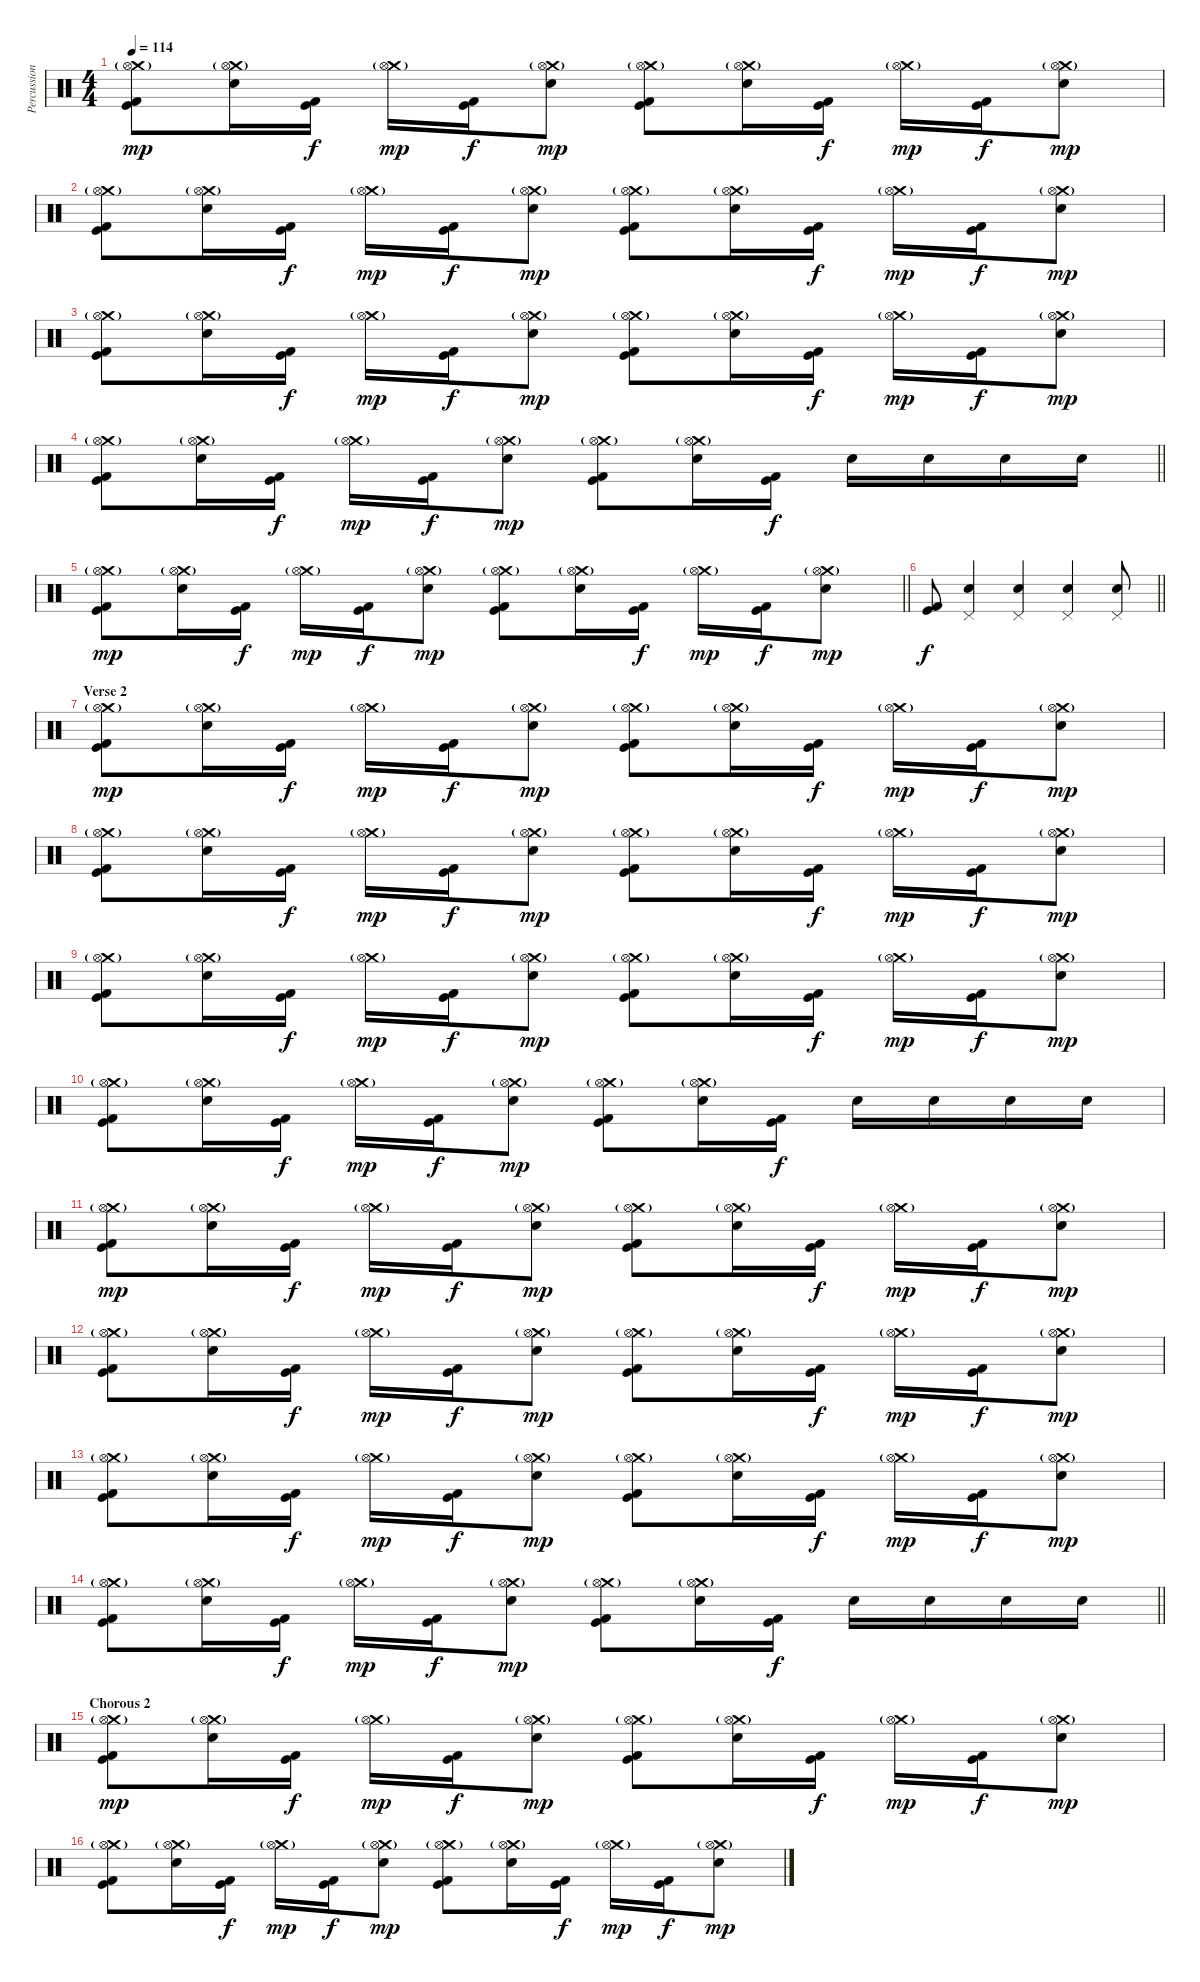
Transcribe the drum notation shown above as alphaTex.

\track ("Percussion" "Percussion") {instrument percussion}
\staff {score}
\articulation defaults
\ts (4 4)
\tempo 114
\clef neutral
\ks c
("Crash medium (hit)"{g} "Hi-Hat (open)" "Kick (hit)" "Kick (hit) 2").8{dy mp} ("Crash medium (hit)"{g} "Hi-Hat (open)" "Electric Snare (hit)").16 ("Kick (hit)" "Kick (hit) 2").16{dy f} ("Crash medium (hit)"{g} "Hi-Hat (open)").16{dy mp} ("Kick (hit)" "Kick (hit) 2").16{dy f} ("Crash medium (hit)"{g} "Hi-Hat (open)" "Electric Snare (hit)").8{dy mp} ("Crash medium (hit)"{g} "Hi-Hat (open)" "Kick (hit)" "Kick (hit) 2").8 ("Crash medium (hit)"{g} "Hi-Hat (open)" "Electric Snare (hit)").16 ("Kick (hit)" "Kick (hit) 2").16{dy f} ("Crash medium (hit)"{g} "Hi-Hat (open)").16{dy mp} ("Kick (hit)" "Kick (hit) 2").16{dy f} ("Crash medium (hit)"{g} "Hi-Hat (open)" "Electric Snare (hit)").8{dy mp} |
("Crash medium (hit)"{g} "Hi-Hat (open)" "Kick (hit)" "Kick (hit) 2").8 ("Crash medium (hit)"{g} "Hi-Hat (open)" "Electric Snare (hit)").16 ("Kick (hit)" "Kick (hit) 2").16{dy f} ("Crash medium (hit)"{g} "Hi-Hat (open)").16{dy mp} ("Kick (hit)" "Kick (hit) 2").16{dy f} ("Crash medium (hit)"{g} "Hi-Hat (open)" "Electric Snare (hit)").8{dy mp} ("Crash medium (hit)"{g} "Hi-Hat (open)" "Kick (hit)" "Kick (hit) 2").8 ("Crash medium (hit)"{g} "Hi-Hat (open)" "Electric Snare (hit)").16 ("Kick (hit)" "Kick (hit) 2").16{dy f} ("Crash medium (hit)"{g} "Hi-Hat (open)").16{dy mp} ("Kick (hit)" "Kick (hit) 2").16{dy f} ("Crash medium (hit)"{g} "Hi-Hat (open)" "Electric Snare (hit)").8{dy mp} |
("Crash medium (hit)"{g} "Hi-Hat (open)" "Kick (hit)" "Kick (hit) 2").8 ("Crash medium (hit)"{g} "Hi-Hat (open)" "Electric Snare (hit)").16 ("Kick (hit)" "Kick (hit) 2").16{dy f} ("Crash medium (hit)"{g} "Hi-Hat (open)").16{dy mp} ("Kick (hit)" "Kick (hit) 2").16{dy f} ("Crash medium (hit)"{g} "Hi-Hat (open)" "Electric Snare (hit)").8{dy mp} ("Crash medium (hit)"{g} "Hi-Hat (open)" "Kick (hit)" "Kick (hit) 2").8 ("Crash medium (hit)"{g} "Hi-Hat (open)" "Electric Snare (hit)").16 ("Kick (hit)" "Kick (hit) 2").16{dy f} ("Crash medium (hit)"{g} "Hi-Hat (open)").16{dy mp} ("Kick (hit)" "Kick (hit) 2").16{dy f} ("Crash medium (hit)"{g} "Hi-Hat (open)" "Electric Snare (hit)").8{dy mp} |
\barLineRight lightlight
("Crash medium (hit)"{g} "Hi-Hat (open)" "Kick (hit)" "Kick (hit) 2").8 ("Crash medium (hit)"{g} "Hi-Hat (open)" "Electric Snare (hit)").16 ("Kick (hit)" "Kick (hit) 2").16{dy f} ("Crash medium (hit)"{g} "Hi-Hat (open)").16{dy mp} ("Kick (hit)" "Kick (hit) 2").16{dy f} ("Crash medium (hit)"{g} "Hi-Hat (open)" "Electric Snare (hit)").8{dy mp} ("Crash medium (hit)"{g} "Hi-Hat (open)" "Kick (hit)" "Kick (hit) 2").8 ("Crash medium (hit)"{g} "Hi-Hat (open)" "Electric Snare (hit)").16 ("Kick (hit)" "Kick (hit) 2").16{dy f} "Electric Snare (hit)".16 "Electric Snare (hit)".16 "Electric Snare (hit)".16 "Electric Snare (hit)".16 |
\section ("" "")
\barLineRight lightlight
("Crash medium (hit)"{g} "Hi-Hat (open)" "Kick (hit)" "Kick (hit) 2").8{dy mp} ("Crash medium (hit)"{g} "Hi-Hat (open)" "Electric Snare (hit)").16 ("Kick (hit)" "Kick (hit) 2").16{dy f} ("Crash medium (hit)"{g} "Hi-Hat (open)").16{dy mp} ("Kick (hit)" "Kick (hit) 2").16{dy f} ("Crash medium (hit)"{g} "Hi-Hat (open)" "Electric Snare (hit)").8{dy mp} ("Crash medium (hit)"{g} "Hi-Hat (open)" "Kick (hit)" "Kick (hit) 2").8 ("Crash medium (hit)"{g} "Hi-Hat (open)" "Electric Snare (hit)").16 ("Kick (hit)" "Kick (hit) 2").16{dy f} ("Crash medium (hit)"{g} "Hi-Hat (open)").16{dy mp} ("Kick (hit)" "Kick (hit) 2").16{dy f} ("Crash medium (hit)"{g} "Hi-Hat (open)" "Electric Snare (hit)").8{dy mp} |
\section ("" "")
\barLineRight lightlight
("Kick (hit)" "Kick (hit) 2").8{dy f} ("Pedal Hi-Hat (hit)" "Electric Snare (hit)").4 ("Pedal Hi-Hat (hit)" "Electric Snare (hit)").4 ("Pedal Hi-Hat (hit)" "Electric Snare (hit)").4 ("Pedal Hi-Hat (hit)" "Electric Snare (hit)").8 |
\section ("" "Verse 2")
("Crash medium (hit)"{g} "Hi-Hat (open)" "Kick (hit)" "Kick (hit) 2").8{dy mp} ("Crash medium (hit)"{g} "Hi-Hat (open)" "Electric Snare (hit)").16 ("Kick (hit)" "Kick (hit) 2").16{dy f} ("Crash medium (hit)"{g} "Hi-Hat (open)").16{dy mp} ("Kick (hit)" "Kick (hit) 2").16{dy f} ("Crash medium (hit)"{g} "Hi-Hat (open)" "Electric Snare (hit)").8{dy mp} ("Crash medium (hit)"{g} "Hi-Hat (open)" "Kick (hit)" "Kick (hit) 2").8 ("Crash medium (hit)"{g} "Hi-Hat (open)" "Electric Snare (hit)").16 ("Kick (hit)" "Kick (hit) 2").16{dy f} ("Crash medium (hit)"{g} "Hi-Hat (open)").16{dy mp} ("Kick (hit)" "Kick (hit) 2").16{dy f} ("Crash medium (hit)"{g} "Hi-Hat (open)" "Electric Snare (hit)").8{dy mp} |
("Crash medium (hit)"{g} "Hi-Hat (open)" "Kick (hit)" "Kick (hit) 2").8 ("Crash medium (hit)"{g} "Hi-Hat (open)" "Electric Snare (hit)").16 ("Kick (hit)" "Kick (hit) 2").16{dy f} ("Crash medium (hit)"{g} "Hi-Hat (open)").16{dy mp} ("Kick (hit)" "Kick (hit) 2").16{dy f} ("Crash medium (hit)"{g} "Hi-Hat (open)" "Electric Snare (hit)").8{dy mp} ("Crash medium (hit)"{g} "Hi-Hat (open)" "Kick (hit)" "Kick (hit) 2").8 ("Crash medium (hit)"{g} "Hi-Hat (open)" "Electric Snare (hit)").16 ("Kick (hit)" "Kick (hit) 2").16{dy f} ("Crash medium (hit)"{g} "Hi-Hat (open)").16{dy mp} ("Kick (hit)" "Kick (hit) 2").16{dy f} ("Crash medium (hit)"{g} "Hi-Hat (open)" "Electric Snare (hit)").8{dy mp} |
("Crash medium (hit)"{g} "Hi-Hat (open)" "Kick (hit)" "Kick (hit) 2").8 ("Crash medium (hit)"{g} "Hi-Hat (open)" "Electric Snare (hit)").16 ("Kick (hit)" "Kick (hit) 2").16{dy f} ("Crash medium (hit)"{g} "Hi-Hat (open)").16{dy mp} ("Kick (hit)" "Kick (hit) 2").16{dy f} ("Crash medium (hit)"{g} "Hi-Hat (open)" "Electric Snare (hit)").8{dy mp} ("Crash medium (hit)"{g} "Hi-Hat (open)" "Kick (hit)" "Kick (hit) 2").8 ("Crash medium (hit)"{g} "Hi-Hat (open)" "Electric Snare (hit)").16 ("Kick (hit)" "Kick (hit) 2").16{dy f} ("Crash medium (hit)"{g} "Hi-Hat (open)").16{dy mp} ("Kick (hit)" "Kick (hit) 2").16{dy f} ("Crash medium (hit)"{g} "Hi-Hat (open)" "Electric Snare (hit)").8{dy mp} |
("Crash medium (hit)"{g} "Hi-Hat (open)" "Kick (hit)" "Kick (hit) 2").8 ("Crash medium (hit)"{g} "Hi-Hat (open)" "Electric Snare (hit)").16 ("Kick (hit)" "Kick (hit) 2").16{dy f} ("Crash medium (hit)"{g} "Hi-Hat (open)").16{dy mp} ("Kick (hit)" "Kick (hit) 2").16{dy f} ("Crash medium (hit)"{g} "Hi-Hat (open)" "Electric Snare (hit)").8{dy mp} ("Crash medium (hit)"{g} "Hi-Hat (open)" "Kick (hit)" "Kick (hit) 2").8 ("Crash medium (hit)"{g} "Hi-Hat (open)" "Electric Snare (hit)").16 ("Kick (hit)" "Kick (hit) 2").16{dy f} "Electric Snare (hit)".16 "Electric Snare (hit)".16 "Electric Snare (hit)".16 "Electric Snare (hit)".16 |
("Crash medium (hit)"{g} "Hi-Hat (open)" "Kick (hit)" "Kick (hit) 2").8{dy mp} ("Crash medium (hit)"{g} "Hi-Hat (open)" "Electric Snare (hit)").16 ("Kick (hit)" "Kick (hit) 2").16{dy f} ("Crash medium (hit)"{g} "Hi-Hat (open)").16{dy mp} ("Kick (hit)" "Kick (hit) 2").16{dy f} ("Crash medium (hit)"{g} "Hi-Hat (open)" "Electric Snare (hit)").8{dy mp} ("Crash medium (hit)"{g} "Hi-Hat (open)" "Kick (hit)" "Kick (hit) 2").8 ("Crash medium (hit)"{g} "Hi-Hat (open)" "Electric Snare (hit)").16 ("Kick (hit)" "Kick (hit) 2").16{dy f} ("Crash medium (hit)"{g} "Hi-Hat (open)").16{dy mp} ("Kick (hit)" "Kick (hit) 2").16{dy f} ("Crash medium (hit)"{g} "Hi-Hat (open)" "Electric Snare (hit)").8{dy mp} |
("Crash medium (hit)"{g} "Hi-Hat (open)" "Kick (hit)" "Kick (hit) 2").8 ("Crash medium (hit)"{g} "Hi-Hat (open)" "Electric Snare (hit)").16 ("Kick (hit)" "Kick (hit) 2").16{dy f} ("Crash medium (hit)"{g} "Hi-Hat (open)").16{dy mp} ("Kick (hit)" "Kick (hit) 2").16{dy f} ("Crash medium (hit)"{g} "Hi-Hat (open)" "Electric Snare (hit)").8{dy mp} ("Crash medium (hit)"{g} "Hi-Hat (open)" "Kick (hit)" "Kick (hit) 2").8 ("Crash medium (hit)"{g} "Hi-Hat (open)" "Electric Snare (hit)").16 ("Kick (hit)" "Kick (hit) 2").16{dy f} ("Crash medium (hit)"{g} "Hi-Hat (open)").16{dy mp} ("Kick (hit)" "Kick (hit) 2").16{dy f} ("Crash medium (hit)"{g} "Hi-Hat (open)" "Electric Snare (hit)").8{dy mp} |
("Crash medium (hit)"{g} "Hi-Hat (open)" "Kick (hit)" "Kick (hit) 2").8 ("Crash medium (hit)"{g} "Hi-Hat (open)" "Electric Snare (hit)").16 ("Kick (hit)" "Kick (hit) 2").16{dy f} ("Crash medium (hit)"{g} "Hi-Hat (open)").16{dy mp} ("Kick (hit)" "Kick (hit) 2").16{dy f} ("Crash medium (hit)"{g} "Hi-Hat (open)" "Electric Snare (hit)").8{dy mp} ("Crash medium (hit)"{g} "Hi-Hat (open)" "Kick (hit)" "Kick (hit) 2").8 ("Crash medium (hit)"{g} "Hi-Hat (open)" "Electric Snare (hit)").16 ("Kick (hit)" "Kick (hit) 2").16{dy f} ("Crash medium (hit)"{g} "Hi-Hat (open)").16{dy mp} ("Kick (hit)" "Kick (hit) 2").16{dy f} ("Crash medium (hit)"{g} "Hi-Hat (open)" "Electric Snare (hit)").8{dy mp} |
\barLineRight lightlight
("Crash medium (hit)"{g} "Hi-Hat (open)" "Kick (hit)" "Kick (hit) 2").8 ("Crash medium (hit)"{g} "Hi-Hat (open)" "Electric Snare (hit)").16 ("Kick (hit)" "Kick (hit) 2").16{dy f} ("Crash medium (hit)"{g} "Hi-Hat (open)").16{dy mp} ("Kick (hit)" "Kick (hit) 2").16{dy f} ("Crash medium (hit)"{g} "Hi-Hat (open)" "Electric Snare (hit)").8{dy mp} ("Crash medium (hit)"{g} "Hi-Hat (open)" "Kick (hit)" "Kick (hit) 2").8 ("Crash medium (hit)"{g} "Hi-Hat (open)" "Electric Snare (hit)").16 ("Kick (hit)" "Kick (hit) 2").16{dy f} "Electric Snare (hit)".16 "Electric Snare (hit)".16 "Electric Snare (hit)".16 "Electric Snare (hit)".16 |
\section ("" "Chorous 2")
("Crash medium (hit)"{g} "Hi-Hat (open)" "Kick (hit)" "Kick (hit) 2").8{dy mp} ("Crash medium (hit)"{g} "Hi-Hat (open)" "Electric Snare (hit)").16 ("Kick (hit)" "Kick (hit) 2").16{dy f} ("Crash medium (hit)"{g} "Hi-Hat (open)").16{dy mp} ("Kick (hit)" "Kick (hit) 2").16{dy f} ("Crash medium (hit)"{g} "Hi-Hat (open)" "Electric Snare (hit)").8{dy mp} ("Crash medium (hit)"{g} "Hi-Hat (open)" "Kick (hit)" "Kick (hit) 2").8 ("Crash medium (hit)"{g} "Hi-Hat (open)" "Electric Snare (hit)").16 ("Kick (hit)" "Kick (hit) 2").16{dy f} ("Crash medium (hit)"{g} "Hi-Hat (open)").16{dy mp} ("Kick (hit)" "Kick (hit) 2").16{dy f} ("Crash medium (hit)"{g} "Hi-Hat (open)" "Electric Snare (hit)").8{dy mp} |
("Crash medium (hit)"{g} "Hi-Hat (open)" "Kick (hit)" "Kick (hit) 2").8 ("Crash medium (hit)"{g} "Hi-Hat (open)" "Electric Snare (hit)").16 ("Kick (hit)" "Kick (hit) 2").16{dy f} ("Crash medium (hit)"{g} "Hi-Hat (open)").16{dy mp} ("Kick (hit)" "Kick (hit) 2").16{dy f} ("Crash medium (hit)"{g} "Hi-Hat (open)" "Electric Snare (hit)").8{dy mp} ("Crash medium (hit)"{g} "Hi-Hat (open)" "Kick (hit)" "Kick (hit) 2").8 ("Crash medium (hit)"{g} "Hi-Hat (open)" "Electric Snare (hit)").16 ("Kick (hit)" "Kick (hit) 2").16{dy f} ("Crash medium (hit)"{g} "Hi-Hat (open)").16{dy mp} ("Kick (hit)" "Kick (hit) 2").16{dy f} ("Crash medium (hit)"{g} "Hi-Hat (open)" "Electric Snare (hit)").8{dy mp}
